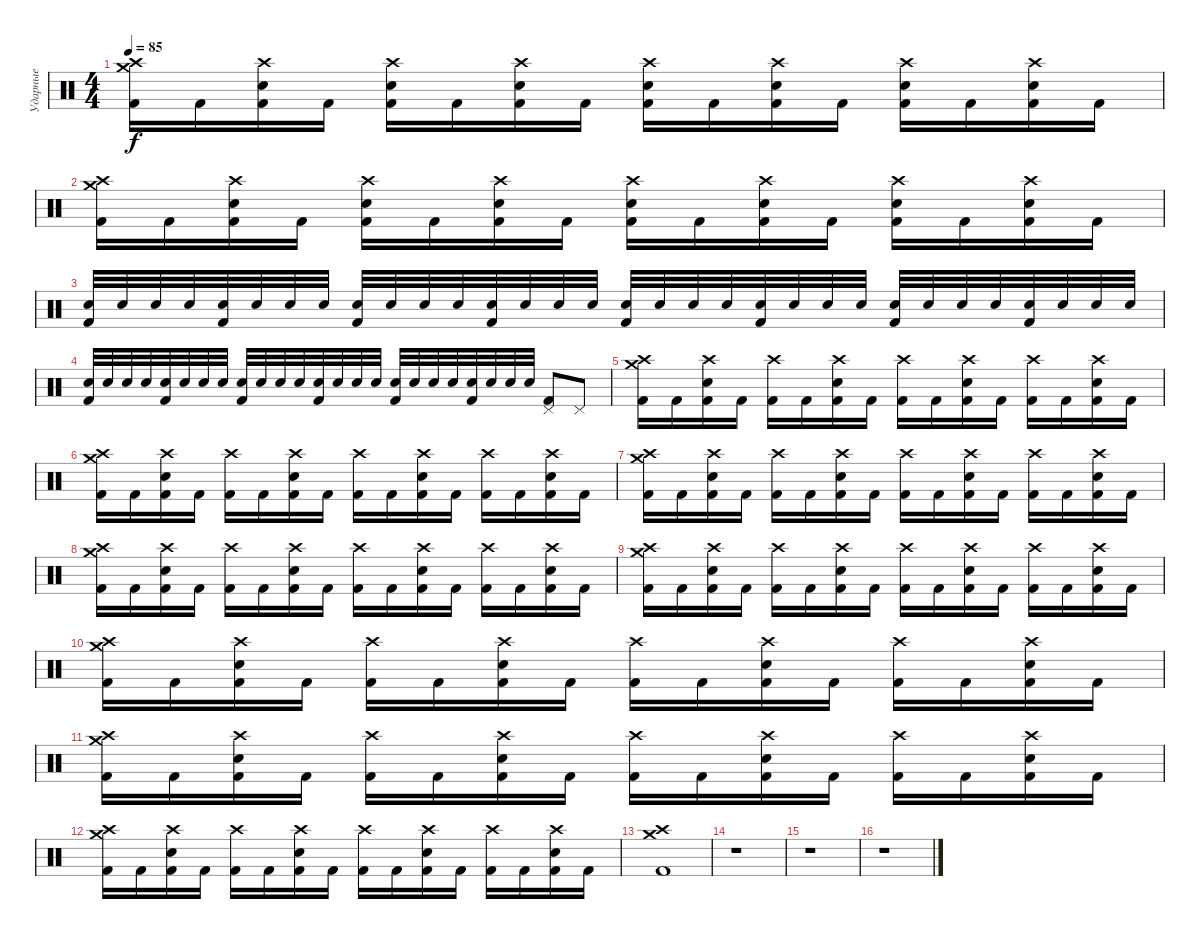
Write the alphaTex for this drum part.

\track ("Ударные" "Ударные") {instrument percussion}
\staff {score}
\articulation defaults
\ts (4 4)
\tempo 85
\clef neutral
\ks c
("Crash medium (hit)" "Crash high (hit)" "Kick (hit) 2").16{dy f} "Kick (hit) 2".16 ("Electric Snare (hit)" "Crash high (hit)" "Kick (hit) 2").16 "Kick (hit) 2".16 ("Electric Snare (hit)" "Crash high (hit)" "Kick (hit) 2").16 "Kick (hit) 2".16 ("Electric Snare (hit)" "Crash high (hit)" "Kick (hit) 2").16 "Kick (hit) 2".16 ("Electric Snare (hit)" "Crash high (hit)" "Kick (hit) 2").16 "Kick (hit) 2".16 ("Electric Snare (hit)" "Crash high (hit)" "Kick (hit) 2").16 "Kick (hit) 2".16 ("Electric Snare (hit)" "Crash high (hit)" "Kick (hit) 2").16 "Kick (hit) 2".16 ("Electric Snare (hit)" "Crash high (hit)" "Kick (hit) 2").16 "Kick (hit) 2".16 |
("Crash medium (hit)" "Crash high (hit)" "Kick (hit) 2").16 "Kick (hit) 2".16 ("Electric Snare (hit)" "Crash high (hit)" "Kick (hit) 2").16 "Kick (hit) 2".16 ("Electric Snare (hit)" "Crash high (hit)" "Kick (hit) 2").16 "Kick (hit) 2".16 ("Electric Snare (hit)" "Crash high (hit)" "Kick (hit) 2").16 "Kick (hit) 2".16 ("Electric Snare (hit)" "Crash high (hit)" "Kick (hit) 2").16 "Kick (hit) 2".16 ("Electric Snare (hit)" "Crash high (hit)" "Kick (hit) 2").16 "Kick (hit) 2".16 ("Electric Snare (hit)" "Crash high (hit)" "Kick (hit) 2").16 "Kick (hit) 2".16 ("Electric Snare (hit)" "Crash high (hit)" "Kick (hit) 2").16 "Kick (hit) 2".16 |
("Electric Snare (hit)" "Kick (hit) 2").32 "Electric Snare (hit)".32 "Electric Snare (hit)".32 "Electric Snare (hit)".32 ("Electric Snare (hit)" "Kick (hit) 2").32 "Electric Snare (hit)".32 "Electric Snare (hit)".32 "Electric Snare (hit)".32 ("Electric Snare (hit)" "Kick (hit) 2").32 "Electric Snare (hit)".32 "Electric Snare (hit)".32 "Electric Snare (hit)".32 ("Electric Snare (hit)" "Kick (hit) 2").32 "Electric Snare (hit)".32 "Electric Snare (hit)".32 "Electric Snare (hit)".32 ("Electric Snare (hit)" "Kick (hit) 2").32 "Electric Snare (hit)".32 "Electric Snare (hit)".32 "Electric Snare (hit)".32 ("Electric Snare (hit)" "Kick (hit) 2").32 "Electric Snare (hit)".32 "Electric Snare (hit)".32 "Electric Snare (hit)".32 ("Electric Snare (hit)" "Kick (hit) 2").32 "Electric Snare (hit)".32 "Electric Snare (hit)".32 "Electric Snare (hit)".32 ("Electric Snare (hit)" "Kick (hit) 2").32 "Electric Snare (hit)".32 "Electric Snare (hit)".32 "Electric Snare (hit)".32 |
("Electric Snare (hit)" "Kick (hit) 2").32 "Electric Snare (hit)".32 "Electric Snare (hit)".32 "Electric Snare (hit)".32 ("Electric Snare (hit)" "Kick (hit) 2").32 "Electric Snare (hit)".32 "Electric Snare (hit)".32 "Electric Snare (hit)".32 ("Electric Snare (hit)" "Kick (hit) 2").32 "Electric Snare (hit)".32 "Electric Snare (hit)".32 "Electric Snare (hit)".32 ("Electric Snare (hit)" "Kick (hit) 2").32 "Electric Snare (hit)".32 "Electric Snare (hit)".32 "Electric Snare (hit)".32 ("Electric Snare (hit)" "Kick (hit) 2").32 "Electric Snare (hit)".32 "Electric Snare (hit)".32 "Electric Snare (hit)".32 ("Electric Snare (hit)" "Kick (hit) 2").32 "Electric Snare (hit)".32 "Electric Snare (hit)".32 "Electric Snare (hit)".32 ("Pedal Hi-Hat (hit)" "Kick (hit) 2").8 "Pedal Hi-Hat (hit)".8 |
("Crash medium (hit)" "Crash high (hit)" "Kick (hit) 2").16 "Kick (hit) 2".16 ("Electric Snare (hit)" "Crash high (hit)" "Kick (hit) 2").16 "Kick (hit) 2".16 ("Crash high (hit)" "Kick (hit) 2").16 "Kick (hit) 2".16 ("Electric Snare (hit)" "Crash high (hit)" "Kick (hit) 2").16 "Kick (hit) 2".16 ("Crash high (hit)" "Kick (hit) 2").16 "Kick (hit) 2".16 ("Electric Snare (hit)" "Crash high (hit)" "Kick (hit) 2").16 "Kick (hit) 2".16 ("Crash high (hit)" "Kick (hit) 2").16 "Kick (hit) 2".16 ("Electric Snare (hit)" "Crash high (hit)" "Kick (hit) 2").16 "Kick (hit) 2".16 |
("Crash medium (hit)" "Crash high (hit)" "Kick (hit) 2").16 "Kick (hit) 2".16 ("Electric Snare (hit)" "Crash high (hit)" "Kick (hit) 2").16 "Kick (hit) 2".16 ("Crash high (hit)" "Kick (hit) 2").16 "Kick (hit) 2".16 ("Electric Snare (hit)" "Crash high (hit)" "Kick (hit) 2").16 "Kick (hit) 2".16 ("Crash high (hit)" "Kick (hit) 2").16 "Kick (hit) 2".16 ("Electric Snare (hit)" "Crash high (hit)" "Kick (hit) 2").16 "Kick (hit) 2".16 ("Crash high (hit)" "Kick (hit) 2").16 "Kick (hit) 2".16 ("Electric Snare (hit)" "Crash high (hit)" "Kick (hit) 2").16 "Kick (hit) 2".16 |
("Crash medium (hit)" "Crash high (hit)" "Kick (hit) 2").16 "Kick (hit) 2".16 ("Electric Snare (hit)" "Crash high (hit)" "Kick (hit) 2").16 "Kick (hit) 2".16 ("Crash high (hit)" "Kick (hit) 2").16 "Kick (hit) 2".16 ("Electric Snare (hit)" "Crash high (hit)" "Kick (hit) 2").16 "Kick (hit) 2".16 ("Crash high (hit)" "Kick (hit) 2").16 "Kick (hit) 2".16 ("Electric Snare (hit)" "Crash high (hit)" "Kick (hit) 2").16 "Kick (hit) 2".16 ("Crash high (hit)" "Kick (hit) 2").16 "Kick (hit) 2".16 ("Electric Snare (hit)" "Crash high (hit)" "Kick (hit) 2").16 "Kick (hit) 2".16 |
("Crash medium (hit)" "Crash high (hit)" "Kick (hit) 2").16 "Kick (hit) 2".16 ("Electric Snare (hit)" "Crash high (hit)" "Kick (hit) 2").16 "Kick (hit) 2".16 ("Crash high (hit)" "Kick (hit) 2").16 "Kick (hit) 2".16 ("Electric Snare (hit)" "Crash high (hit)" "Kick (hit) 2").16 "Kick (hit) 2".16 ("Crash high (hit)" "Kick (hit) 2").16 "Kick (hit) 2".16 ("Electric Snare (hit)" "Crash high (hit)" "Kick (hit) 2").16 "Kick (hit) 2".16 ("Crash high (hit)" "Kick (hit) 2").16 "Kick (hit) 2".16 ("Electric Snare (hit)" "Crash high (hit)" "Kick (hit) 2").16 "Kick (hit) 2".16 |
("Crash medium (hit)" "Crash high (hit)" "Kick (hit) 2").16 "Kick (hit) 2".16 ("Electric Snare (hit)" "Crash high (hit)" "Kick (hit) 2").16 "Kick (hit) 2".16 ("Crash high (hit)" "Kick (hit) 2").16 "Kick (hit) 2".16 ("Electric Snare (hit)" "Crash high (hit)" "Kick (hit) 2").16 "Kick (hit) 2".16 ("Crash high (hit)" "Kick (hit) 2").16 "Kick (hit) 2".16 ("Electric Snare (hit)" "Crash high (hit)" "Kick (hit) 2").16 "Kick (hit) 2".16 ("Crash high (hit)" "Kick (hit) 2").16 "Kick (hit) 2".16 ("Electric Snare (hit)" "Crash high (hit)" "Kick (hit) 2").16 "Kick (hit) 2".16 |
("Crash medium (hit)" "Crash high (hit)" "Kick (hit) 2").16 "Kick (hit) 2".16 ("Electric Snare (hit)" "Crash high (hit)" "Kick (hit) 2").16 "Kick (hit) 2".16 ("Crash high (hit)" "Kick (hit) 2").16 "Kick (hit) 2".16 ("Electric Snare (hit)" "Crash high (hit)" "Kick (hit) 2").16 "Kick (hit) 2".16 ("Crash high (hit)" "Kick (hit) 2").16 "Kick (hit) 2".16 ("Electric Snare (hit)" "Crash high (hit)" "Kick (hit) 2").16 "Kick (hit) 2".16 ("Crash high (hit)" "Kick (hit) 2").16 "Kick (hit) 2".16 ("Electric Snare (hit)" "Crash high (hit)" "Kick (hit) 2").16 "Kick (hit) 2".16 |
("Crash medium (hit)" "Crash high (hit)" "Kick (hit) 2").16 "Kick (hit) 2".16 ("Electric Snare (hit)" "Crash high (hit)" "Kick (hit) 2").16 "Kick (hit) 2".16 ("Crash high (hit)" "Kick (hit) 2").16 "Kick (hit) 2".16 ("Electric Snare (hit)" "Crash high (hit)" "Kick (hit) 2").16 "Kick (hit) 2".16 ("Crash high (hit)" "Kick (hit) 2").16 "Kick (hit) 2".16 ("Electric Snare (hit)" "Crash high (hit)" "Kick (hit) 2").16 "Kick (hit) 2".16 ("Crash high (hit)" "Kick (hit) 2").16 "Kick (hit) 2".16 ("Electric Snare (hit)" "Crash high (hit)" "Kick (hit) 2").16 "Kick (hit) 2".16 |
("Crash medium (hit)" "Crash high (hit)" "Kick (hit) 2").16 "Kick (hit) 2".16 ("Electric Snare (hit)" "Crash high (hit)" "Kick (hit) 2").16 "Kick (hit) 2".16 ("Crash high (hit)" "Kick (hit) 2").16 "Kick (hit) 2".16 ("Electric Snare (hit)" "Crash high (hit)" "Kick (hit) 2").16 "Kick (hit) 2".16 ("Crash high (hit)" "Kick (hit) 2").16 "Kick (hit) 2".16 ("Electric Snare (hit)" "Crash high (hit)" "Kick (hit) 2").16 "Kick (hit) 2".16 ("Crash high (hit)" "Kick (hit) 2").16 "Kick (hit) 2".16 ("Electric Snare (hit)" "Crash high (hit)" "Kick (hit) 2").16 "Kick (hit) 2".16 |
("Crash medium (hit)" "Crash high (hit)" "Kick (hit) 2").1 |
r.1 |
r.1 |
r.1
